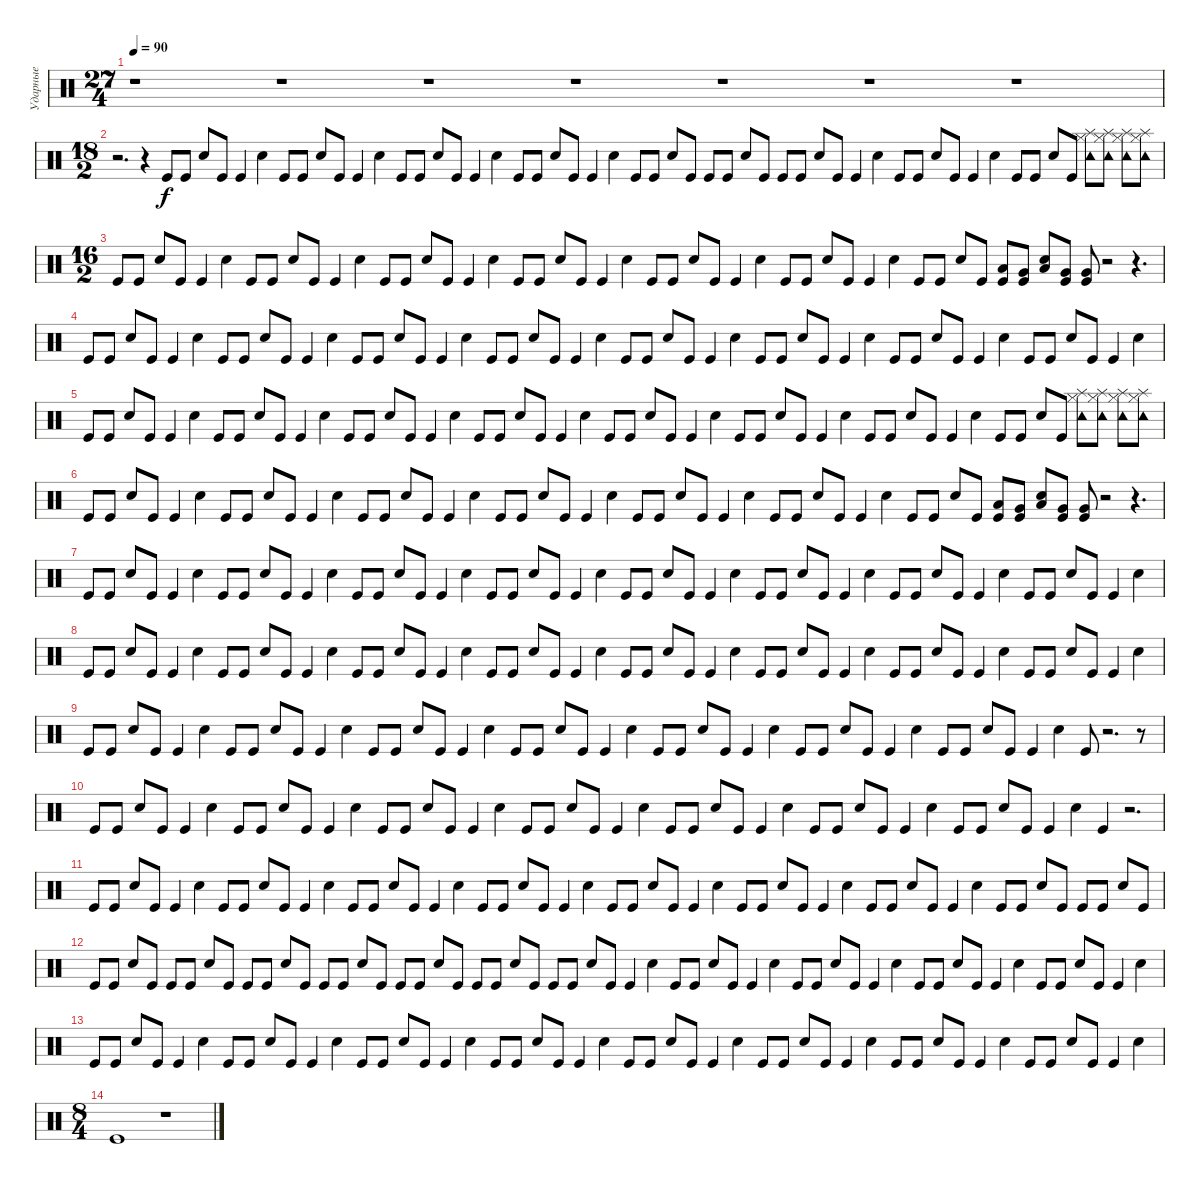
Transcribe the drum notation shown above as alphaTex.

\track ("Ударные" "Ударные") {instrument percussion}
\staff {score}
\articulation defaults
\ts (27 4)
\tempo 90
\clef neutral
\ks c
r.1{dy f} r.1 r.1 r.1 r.1 r.1 r.1 |
\ts (18 2)
r.2{d} r.4 "Kick (hit)".8 "Kick (hit)".8 "Snare (hit) 2".8 "Kick (hit)".8 "Kick (hit)".4 "Snare (hit) 2".4 "Kick (hit)".8 "Kick (hit)".8 "Snare (hit) 2".8 "Kick (hit)".8 "Kick (hit)".4 "Snare (hit) 2".4 "Kick (hit)".8 "Kick (hit)".8 "Snare (hit) 2".8 "Kick (hit)".8 "Kick (hit)".4 "Snare (hit) 2".4 "Kick (hit)".8 "Kick (hit)".8 "Snare (hit) 2".8 "Kick (hit)".8 "Kick (hit)".4 "Snare (hit) 2".4 "Kick (hit)".8 "Kick (hit)".8 "Snare (hit) 2".8 "Kick (hit)".8 "Kick (hit)".8 "Kick (hit)".8 "Snare (hit) 2".8 "Kick (hit)".8 "Kick (hit)".8 "Kick (hit)".8 "Snare (hit) 2".8 "Kick (hit)".8 "Kick (hit)".4 "Snare (hit) 2".4 "Kick (hit)".8 "Kick (hit)".8 "Snare (hit) 2".8 "Kick (hit)".8 "Kick (hit)".4 "Snare (hit) 2".4 "Kick (hit)".8 "Kick (hit)".8 "Snare (hit) 2".8 "Kick (hit)".8 ("Splash (hit)" "Tambourine (hit)" "Hi-Hat (closed)").8 ("Splash (hit)" "Hi-Hat (closed)" "Tambourine (hit)").8 ("Splash (hit)" "Hi-Hat (closed)" "Tambourine (hit)").8 ("Splash (hit)" "Hi-Hat (closed)" "Tambourine (hit)").8 |
\ts (16 2)
"Kick (hit)".8 "Kick (hit)".8 "Snare (hit) 2".8 "Kick (hit)".8 "Kick (hit)".4 "Snare (hit) 2".4 "Kick (hit)".8 "Kick (hit)".8 "Snare (hit) 2".8 "Kick (hit)".8 "Kick (hit)".4 "Snare (hit) 2".4 "Kick (hit)".8 "Kick (hit)".8 "Snare (hit) 2".8 "Kick (hit)".8 "Kick (hit)".4 "Snare (hit) 2".4 "Kick (hit)".8 "Kick (hit)".8 "Snare (hit) 2".8 "Kick (hit)".8 "Kick (hit)".4 "Snare (hit) 2".4 "Kick (hit)".8 "Kick (hit)".8 "Snare (hit) 2".8 "Kick (hit)".8 "Kick (hit)".4 "Snare (hit) 2".4 "Kick (hit)".8 "Kick (hit)".8 "Snare (hit) 2".8 "Kick (hit)".8 "Kick (hit)".4 "Snare (hit) 2".4 "Kick (hit)".8 "Kick (hit)".8 "Snare (hit) 2".8 "Kick (hit)".8 ("Kick (hit)" "Low Floor Tom (hit)").8 ("Kick (hit)" "Very Low Tom (hit)").8 ("Snare (hit) 2" "Low Tom (hit)").8 ("Kick (hit)" "Very Low Tom (hit)").8 ("Kick (hit)" "Very Low Tom (hit)").8 r.2 r.4{d} |
"Kick (hit)".8 "Kick (hit)".8 "Snare (hit) 2".8 "Kick (hit)".8 "Kick (hit)".4 "Snare (hit) 2".4 "Kick (hit)".8 "Kick (hit)".8 "Snare (hit) 2".8 "Kick (hit)".8 "Kick (hit)".4 "Snare (hit) 2".4 "Kick (hit)".8 "Kick (hit)".8 "Snare (hit) 2".8 "Kick (hit)".8 "Kick (hit)".4 "Snare (hit) 2".4 "Kick (hit)".8 "Kick (hit)".8 "Snare (hit) 2".8 "Kick (hit)".8 "Kick (hit)".4 "Snare (hit) 2".4 "Kick (hit)".8 "Kick (hit)".8 "Snare (hit) 2".8 "Kick (hit)".8 "Kick (hit)".4 "Snare (hit) 2".4 "Kick (hit)".8 "Kick (hit)".8 "Snare (hit) 2".8 "Kick (hit)".8 "Kick (hit)".4 "Snare (hit) 2".4 "Kick (hit)".8 "Kick (hit)".8 "Snare (hit) 2".8 "Kick (hit)".8 "Kick (hit)".4 "Snare (hit) 2".4 "Kick (hit)".8 "Kick (hit)".8 "Snare (hit) 2".8 "Kick (hit)".8 "Kick (hit)".4 "Snare (hit) 2".4 |
"Kick (hit)".8 "Kick (hit)".8 "Snare (hit) 2".8 "Kick (hit)".8 "Kick (hit)".4 "Snare (hit) 2".4 "Kick (hit)".8 "Kick (hit)".8 "Snare (hit) 2".8 "Kick (hit)".8 "Kick (hit)".4 "Snare (hit) 2".4 "Kick (hit)".8 "Kick (hit)".8 "Snare (hit) 2".8 "Kick (hit)".8 "Kick (hit)".4 "Snare (hit) 2".4 "Kick (hit)".8 "Kick (hit)".8 "Snare (hit) 2".8 "Kick (hit)".8 "Kick (hit)".4 "Snare (hit) 2".4 "Kick (hit)".8 "Kick (hit)".8 "Snare (hit) 2".8 "Kick (hit)".8 "Kick (hit)".4 "Snare (hit) 2".4 "Kick (hit)".8 "Kick (hit)".8 "Snare (hit) 2".8 "Kick (hit)".8 "Kick (hit)".4 "Snare (hit) 2".4 "Kick (hit)".8 "Kick (hit)".8 "Snare (hit) 2".8 "Kick (hit)".8 "Kick (hit)".4 "Snare (hit) 2".4 "Kick (hit)".8 "Kick (hit)".8 "Snare (hit) 2".8 "Kick (hit)".8 ("Splash (hit)" "Tambourine (hit)" "Hi-Hat (closed)").8 ("Splash (hit)" "Hi-Hat (closed)" "Tambourine (hit)").8 ("Splash (hit)" "Hi-Hat (closed)" "Tambourine (hit)").8 ("Splash (hit)" "Hi-Hat (closed)" "Tambourine (hit)").8 |
"Kick (hit)".8 "Kick (hit)".8 "Snare (hit) 2".8 "Kick (hit)".8 "Kick (hit)".4 "Snare (hit) 2".4 "Kick (hit)".8 "Kick (hit)".8 "Snare (hit) 2".8 "Kick (hit)".8 "Kick (hit)".4 "Snare (hit) 2".4 "Kick (hit)".8 "Kick (hit)".8 "Snare (hit) 2".8 "Kick (hit)".8 "Kick (hit)".4 "Snare (hit) 2".4 "Kick (hit)".8 "Kick (hit)".8 "Snare (hit) 2".8 "Kick (hit)".8 "Kick (hit)".4 "Snare (hit) 2".4 "Kick (hit)".8 "Kick (hit)".8 "Snare (hit) 2".8 "Kick (hit)".8 "Kick (hit)".4 "Snare (hit) 2".4 "Kick (hit)".8 "Kick (hit)".8 "Snare (hit) 2".8 "Kick (hit)".8 "Kick (hit)".4 "Snare (hit) 2".4 "Kick (hit)".8 "Kick (hit)".8 "Snare (hit) 2".8 "Kick (hit)".8 ("Kick (hit)" "Low Floor Tom (hit)").8 ("Kick (hit)" "Very Low Tom (hit)").8 ("Snare (hit) 2" "Low Tom (hit)").8 ("Kick (hit)" "Very Low Tom (hit)").8 ("Kick (hit)" "Very Low Tom (hit)").8 r.2 r.4{d} |
"Kick (hit)".8 "Kick (hit)".8 "Snare (hit) 2".8 "Kick (hit)".8 "Kick (hit)".4 "Snare (hit) 2".4 "Kick (hit)".8 "Kick (hit)".8 "Snare (hit) 2".8 "Kick (hit)".8 "Kick (hit)".4 "Snare (hit) 2".4 "Kick (hit)".8 "Kick (hit)".8 "Snare (hit) 2".8 "Kick (hit)".8 "Kick (hit)".4 "Snare (hit) 2".4 "Kick (hit)".8 "Kick (hit)".8 "Snare (hit) 2".8 "Kick (hit)".8 "Kick (hit)".4 "Snare (hit) 2".4 "Kick (hit)".8 "Kick (hit)".8 "Snare (hit) 2".8 "Kick (hit)".8 "Kick (hit)".4 "Snare (hit) 2".4 "Kick (hit)".8 "Kick (hit)".8 "Snare (hit) 2".8 "Kick (hit)".8 "Kick (hit)".4 "Snare (hit) 2".4 "Kick (hit)".8 "Kick (hit)".8 "Snare (hit) 2".8 "Kick (hit)".8 "Kick (hit)".4 "Snare (hit) 2".4 "Kick (hit)".8 "Kick (hit)".8 "Snare (hit) 2".8 "Kick (hit)".8 "Kick (hit)".4 "Snare (hit) 2".4 |
"Kick (hit)".8 "Kick (hit)".8 "Snare (hit) 2".8 "Kick (hit)".8 "Kick (hit)".4 "Snare (hit) 2".4 "Kick (hit)".8 "Kick (hit)".8 "Snare (hit) 2".8 "Kick (hit)".8 "Kick (hit)".4 "Snare (hit) 2".4 "Kick (hit)".8 "Kick (hit)".8 "Snare (hit) 2".8 "Kick (hit)".8 "Kick (hit)".4 "Snare (hit) 2".4 "Kick (hit)".8 "Kick (hit)".8 "Snare (hit) 2".8 "Kick (hit)".8 "Kick (hit)".4 "Snare (hit) 2".4 "Kick (hit)".8 "Kick (hit)".8 "Snare (hit) 2".8 "Kick (hit)".8 "Kick (hit)".4 "Snare (hit) 2".4 "Kick (hit)".8 "Kick (hit)".8 "Snare (hit) 2".8 "Kick (hit)".8 "Kick (hit)".4 "Snare (hit) 2".4 "Kick (hit)".8 "Kick (hit)".8 "Snare (hit) 2".8 "Kick (hit)".8 "Kick (hit)".4 "Snare (hit) 2".4 "Kick (hit)".8 "Kick (hit)".8 "Snare (hit) 2".8 "Kick (hit)".8 "Kick (hit)".4 "Snare (hit) 2".4 |
"Kick (hit)".8 "Kick (hit)".8 "Snare (hit) 2".8 "Kick (hit)".8 "Kick (hit)".4 "Snare (hit) 2".4 "Kick (hit)".8 "Kick (hit)".8 "Snare (hit) 2".8 "Kick (hit)".8 "Kick (hit)".4 "Snare (hit) 2".4 "Kick (hit)".8 "Kick (hit)".8 "Snare (hit) 2".8 "Kick (hit)".8 "Kick (hit)".4 "Snare (hit) 2".4 "Kick (hit)".8 "Kick (hit)".8 "Snare (hit) 2".8 "Kick (hit)".8 "Kick (hit)".4 "Snare (hit) 2".4 "Kick (hit)".8 "Kick (hit)".8 "Snare (hit) 2".8 "Kick (hit)".8 "Kick (hit)".4 "Snare (hit) 2".4 "Kick (hit)".8 "Kick (hit)".8 "Snare (hit) 2".8 "Kick (hit)".8 "Kick (hit)".4 "Snare (hit) 2".4 "Kick (hit)".8 "Kick (hit)".8 "Snare (hit) 2".8 "Kick (hit)".8 "Kick (hit)".4 "Snare (hit) 2".4 "Kick (hit)".8 r.2{d} r.8 |
"Kick (hit)".8 "Kick (hit)".8 "Snare (hit) 2".8 "Kick (hit)".8 "Kick (hit)".4 "Snare (hit) 2".4 "Kick (hit)".8 "Kick (hit)".8 "Snare (hit) 2".8 "Kick (hit)".8 "Kick (hit)".4 "Snare (hit) 2".4 "Kick (hit)".8 "Kick (hit)".8 "Snare (hit) 2".8 "Kick (hit)".8 "Kick (hit)".4 "Snare (hit) 2".4 "Kick (hit)".8 "Kick (hit)".8 "Snare (hit) 2".8 "Kick (hit)".8 "Kick (hit)".4 "Snare (hit) 2".4 "Kick (hit)".8 "Kick (hit)".8 "Snare (hit) 2".8 "Kick (hit)".8 "Kick (hit)".4 "Snare (hit) 2".4 "Kick (hit)".8 "Kick (hit)".8 "Snare (hit) 2".8 "Kick (hit)".8 "Kick (hit)".4 "Snare (hit) 2".4 "Kick (hit)".8 "Kick (hit)".8 "Snare (hit) 2".8 "Kick (hit)".8 "Kick (hit)".4 "Snare (hit) 2".4 "Kick (hit)".4 r.2{d} |
"Kick (hit)".8 "Kick (hit)".8 "Snare (hit) 2".8 "Kick (hit)".8 "Kick (hit)".4 "Snare (hit) 2".4 "Kick (hit)".8 "Kick (hit)".8 "Snare (hit) 2".8 "Kick (hit)".8 "Kick (hit)".4 "Snare (hit) 2".4 "Kick (hit)".8 "Kick (hit)".8 "Snare (hit) 2".8 "Kick (hit)".8 "Kick (hit)".4 "Snare (hit) 2".4 "Kick (hit)".8 "Kick (hit)".8 "Snare (hit) 2".8 "Kick (hit)".8 "Kick (hit)".4 "Snare (hit) 2".4 "Kick (hit)".8 "Kick (hit)".8 "Snare (hit) 2".8 "Kick (hit)".8 "Kick (hit)".4 "Snare (hit) 2".4 "Kick (hit)".8 "Kick (hit)".8 "Snare (hit) 2".8 "Kick (hit)".8 "Kick (hit)".4 "Snare (hit) 2".4 "Kick (hit)".8 "Kick (hit)".8 "Snare (hit) 2".8 "Kick (hit)".8 "Kick (hit)".4 "Snare (hit) 2".4 "Kick (hit)".8 "Kick (hit)".8 "Snare (hit) 2".8 "Kick (hit)".8 "Kick (hit)".8 "Kick (hit)".8 "Snare (hit) 2".8 "Kick (hit)".8 |
"Kick (hit)".8 "Kick (hit)".8 "Snare (hit) 2".8 "Kick (hit)".8 "Kick (hit)".8 "Kick (hit)".8 "Snare (hit) 2".8 "Kick (hit)".8 "Kick (hit)".8 "Kick (hit)".8 "Snare (hit) 2".8 "Kick (hit)".8 "Kick (hit)".8 "Kick (hit)".8 "Snare (hit) 2".8 "Kick (hit)".8 "Kick (hit)".8 "Kick (hit)".8 "Snare (hit) 2".8 "Kick (hit)".8 "Kick (hit)".8 "Kick (hit)".8 "Snare (hit) 2".8 "Kick (hit)".8 "Kick (hit)".8 "Kick (hit)".8 "Snare (hit) 2".8 "Kick (hit)".8 "Kick (hit)".4 "Snare (hit) 2".4 "Kick (hit)".8 "Kick (hit)".8 "Snare (hit) 2".8 "Kick (hit)".8 "Kick (hit)".4 "Snare (hit) 2".4 "Kick (hit)".8 "Kick (hit)".8 "Snare (hit) 2".8 "Kick (hit)".8 "Kick (hit)".4 "Snare (hit) 2".4 "Kick (hit)".8 "Kick (hit)".8 "Snare (hit) 2".8 "Kick (hit)".8 "Kick (hit)".4 "Snare (hit) 2".4 "Kick (hit)".8 "Kick (hit)".8 "Snare (hit) 2".8 "Kick (hit)".8 "Kick (hit)".4 "Snare (hit) 2".4 |
"Kick (hit)".8 "Kick (hit)".8 "Snare (hit) 2".8 "Kick (hit)".8 "Kick (hit)".4 "Snare (hit) 2".4 "Kick (hit)".8 "Kick (hit)".8 "Snare (hit) 2".8 "Kick (hit)".8 "Kick (hit)".4 "Snare (hit) 2".4 "Kick (hit)".8 "Kick (hit)".8 "Snare (hit) 2".8 "Kick (hit)".8 "Kick (hit)".4 "Snare (hit) 2".4 "Kick (hit)".8 "Kick (hit)".8 "Snare (hit) 2".8 "Kick (hit)".8 "Kick (hit)".4 "Snare (hit) 2".4 "Kick (hit)".8 "Kick (hit)".8 "Snare (hit) 2".8 "Kick (hit)".8 "Kick (hit)".4 "Snare (hit) 2".4 "Kick (hit)".8 "Kick (hit)".8 "Snare (hit) 2".8 "Kick (hit)".8 "Kick (hit)".4 "Snare (hit) 2".4 "Kick (hit)".8 "Kick (hit)".8 "Snare (hit) 2".8 "Kick (hit)".8 "Kick (hit)".4 "Snare (hit) 2".4 "Kick (hit)".8 "Kick (hit)".8 "Snare (hit) 2".8 "Kick (hit)".8 "Kick (hit)".4 "Snare (hit) 2".4 |
\ts (8 4)
"Kick (hit)".1 r.1
